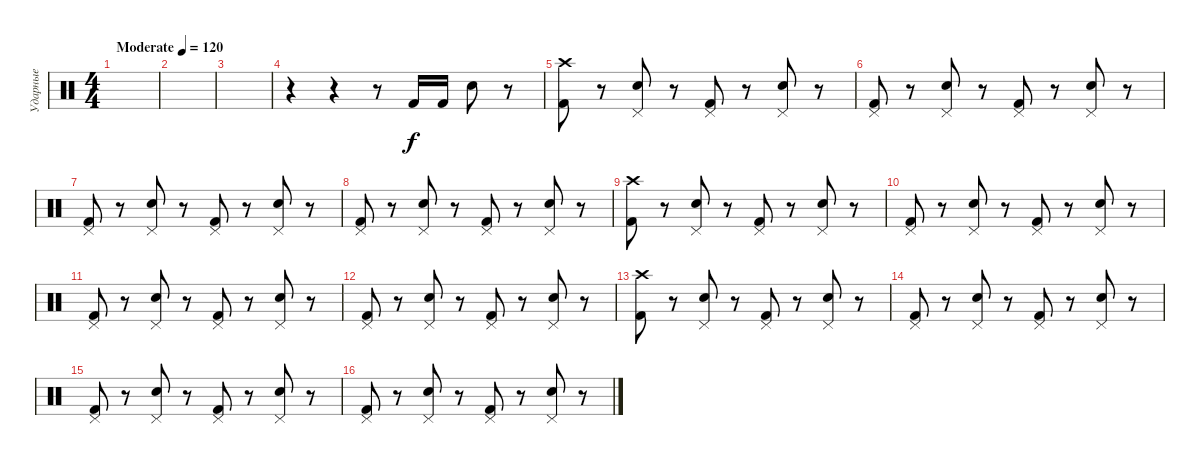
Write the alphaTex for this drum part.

\track ("Ударные" "Ударные") {instrument percussion}
\staff {score}
\articulation defaults
\ts (4 4)
\tempo (120 "Moderate")
\clef neutral
\ks c
|
|
|
r.4 r.4 r.8 "Kick (hit) 2".16 "Kick (hit) 2".16 "Electric Snare (hit)".8 r.8 |
("Crash high (hit)" "Kick (hit) 2").8 r.8 ("Pedal Hi-Hat (hit)" "Electric Snare (hit)").8 r.8 ("Pedal Hi-Hat (hit)" "Kick (hit) 2").8 r.8 ("Pedal Hi-Hat (hit)" "Electric Snare (hit)").8 r.8 |
("Pedal Hi-Hat (hit)" "Kick (hit) 2").8 r.8 ("Pedal Hi-Hat (hit)" "Electric Snare (hit)").8 r.8 ("Pedal Hi-Hat (hit)" "Kick (hit) 2").8 r.8 ("Pedal Hi-Hat (hit)" "Electric Snare (hit)").8 r.8 |
("Pedal Hi-Hat (hit)" "Kick (hit) 2").8 r.8 ("Pedal Hi-Hat (hit)" "Electric Snare (hit)").8 r.8 ("Pedal Hi-Hat (hit)" "Kick (hit) 2").8 r.8 ("Pedal Hi-Hat (hit)" "Electric Snare (hit)").8 r.8 |
("Pedal Hi-Hat (hit)" "Kick (hit) 2").8 r.8 ("Pedal Hi-Hat (hit)" "Electric Snare (hit)").8 r.8 ("Pedal Hi-Hat (hit)" "Kick (hit) 2").8 r.8 ("Pedal Hi-Hat (hit)" "Electric Snare (hit)").8 r.8 |
("Crash high (hit)" "Kick (hit) 2").8 r.8 ("Pedal Hi-Hat (hit)" "Electric Snare (hit)").8 r.8 ("Pedal Hi-Hat (hit)" "Kick (hit) 2").8 r.8 ("Pedal Hi-Hat (hit)" "Electric Snare (hit)").8 r.8 |
("Pedal Hi-Hat (hit)" "Kick (hit) 2").8 r.8 ("Pedal Hi-Hat (hit)" "Electric Snare (hit)").8 r.8 ("Pedal Hi-Hat (hit)" "Kick (hit) 2").8 r.8 ("Pedal Hi-Hat (hit)" "Electric Snare (hit)").8 r.8 |
("Pedal Hi-Hat (hit)" "Kick (hit) 2").8 r.8 ("Pedal Hi-Hat (hit)" "Electric Snare (hit)").8 r.8 ("Pedal Hi-Hat (hit)" "Kick (hit) 2").8 r.8 ("Pedal Hi-Hat (hit)" "Electric Snare (hit)").8 r.8 |
("Pedal Hi-Hat (hit)" "Kick (hit) 2").8 r.8 ("Pedal Hi-Hat (hit)" "Electric Snare (hit)").8 r.8 ("Pedal Hi-Hat (hit)" "Kick (hit) 2").8 r.8 ("Pedal Hi-Hat (hit)" "Electric Snare (hit)").8 r.8 |
("Crash high (hit)" "Kick (hit) 2").8 r.8 ("Pedal Hi-Hat (hit)" "Electric Snare (hit)").8 r.8 ("Pedal Hi-Hat (hit)" "Kick (hit) 2").8 r.8 ("Pedal Hi-Hat (hit)" "Electric Snare (hit)").8 r.8 |
("Pedal Hi-Hat (hit)" "Kick (hit) 2").8 r.8 ("Pedal Hi-Hat (hit)" "Electric Snare (hit)").8 r.8 ("Pedal Hi-Hat (hit)" "Kick (hit) 2").8 r.8 ("Pedal Hi-Hat (hit)" "Electric Snare (hit)").8 r.8 |
("Pedal Hi-Hat (hit)" "Kick (hit) 2").8 r.8 ("Pedal Hi-Hat (hit)" "Electric Snare (hit)").8 r.8 ("Pedal Hi-Hat (hit)" "Kick (hit) 2").8 r.8 ("Pedal Hi-Hat (hit)" "Electric Snare (hit)").8 r.8 |
("Pedal Hi-Hat (hit)" "Kick (hit) 2").8 r.8 ("Pedal Hi-Hat (hit)" "Electric Snare (hit)").8 r.8 ("Pedal Hi-Hat (hit)" "Kick (hit) 2").8 r.8 ("Pedal Hi-Hat (hit)" "Electric Snare (hit)").8 r.8
